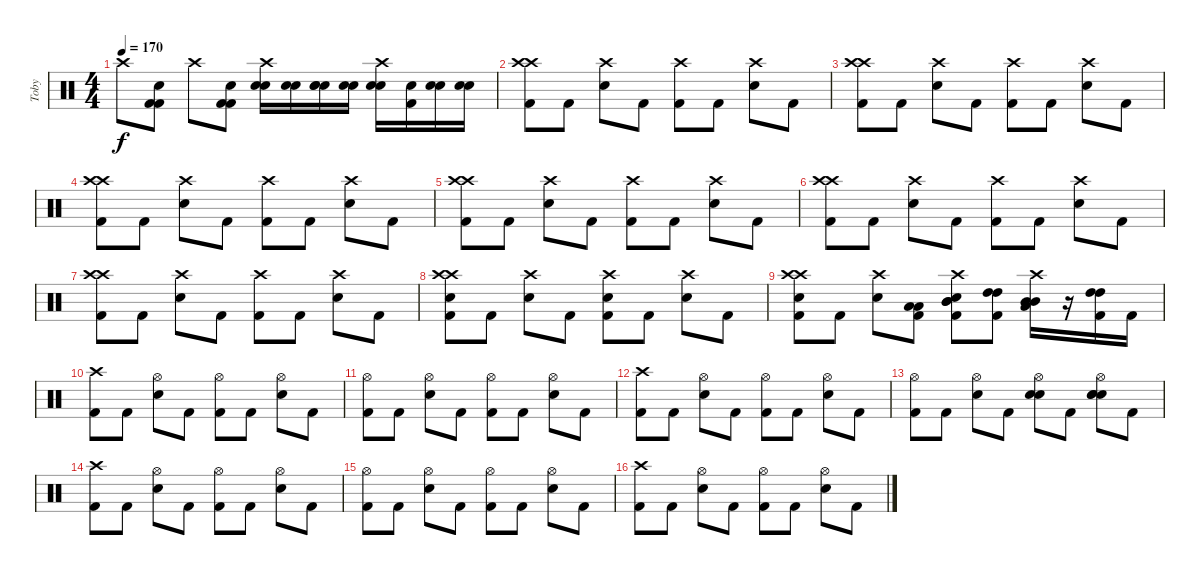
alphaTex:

\track ("Toby" "Toby") {instrument percussion}
\staff {score}
\articulation defaults
\ts (4 4)
\tempo 170
\clef neutral
\ks c "Crash high (hit)".8{dy f}
("Snare (hit)" "Kick (hit) 2" "Kick (hit) 2").8 "Crash high (hit)".8 ("Snare (hit)" "Kick (hit) 2" "Kick (hit) 2").8 ("Crash high (hit)" "Electric Snare (hit)" "Electric Snare (hit)").16 ("Electric Snare (hit)" "Electric Snare (hit)").16 ("Snare (hit)" "Electric Snare (hit)" "Electric Snare (hit)").16 ("Electric Snare (hit)" "Electric Snare (hit)").16 ("Crash high (hit)" "Electric Snare (hit)" "Electric Snare (hit)").16 ("Electric Snare (hit)" "Kick (hit) 2").16 ("Electric Snare (hit)" "Electric Snare (hit)").16 ("Electric Snare (hit)" "Electric Snare (hit)").16 |
("Crash high (hit)" "Crash high (hit)" "Kick (hit) 2").8 "Kick (hit) 2".8 ("Crash high (hit)" "Electric Snare (hit)").8 "Kick (hit) 2".8 ("Crash high (hit)" "Kick (hit) 2").8 "Kick (hit) 2".8 ("Crash high (hit)" "Electric Snare (hit)").8 "Kick (hit) 2".8 |
("Crash high (hit)" "Crash high (hit)" "Kick (hit) 2").8 "Kick (hit) 2".8 ("Crash high (hit)" "Electric Snare (hit)").8 "Kick (hit) 2".8 ("Crash high (hit)" "Kick (hit) 2").8 "Kick (hit) 2".8 ("Crash high (hit)" "Electric Snare (hit)").8 "Kick (hit) 2".8 |
("Crash high (hit)" "Crash high (hit)" "Kick (hit) 2").8 "Kick (hit) 2".8 ("Crash high (hit)" "Electric Snare (hit)").8 "Kick (hit) 2".8 ("Crash high (hit)" "Kick (hit) 2").8 "Kick (hit) 2".8 ("Crash high (hit)" "Electric Snare (hit)").8 "Kick (hit) 2".8 |
("Crash high (hit)" "Crash high (hit)" "Kick (hit) 2").8 "Kick (hit) 2".8 ("Crash high (hit)" "Electric Snare (hit)").8 "Kick (hit) 2".8 ("Crash high (hit)" "Kick (hit) 2").8 "Kick (hit) 2".8 ("Crash high (hit)" "Electric Snare (hit)").8 "Kick (hit) 2".8 |
("Crash high (hit)" "Crash high (hit)" "Kick (hit) 2").8 "Kick (hit) 2".8 ("Crash high (hit)" "Electric Snare (hit)").8 "Kick (hit) 2".8 ("Crash high (hit)" "Kick (hit) 2").8 "Kick (hit) 2".8 ("Crash high (hit)" "Electric Snare (hit)").8 "Kick (hit) 2".8 |
("Crash high (hit)" "Crash high (hit)" "Kick (hit) 2").8 "Kick (hit) 2".8 ("Crash high (hit)" "Electric Snare (hit)").8 "Kick (hit) 2".8 ("Crash high (hit)" "Kick (hit) 2").8 "Kick (hit) 2".8 ("Crash high (hit)" "Electric Snare (hit)").8 "Kick (hit) 2".8 |
("Crash high (hit)" "Crash high (hit)" "Electric Snare (hit)" "Kick (hit) 2").8 "Kick (hit) 2".8 ("Crash high (hit)" "Electric Snare (hit)").8 "Kick (hit) 2".8 ("Crash high (hit)" "Electric Snare (hit)" "Kick (hit) 2").8 "Kick (hit) 2".8 ("Crash high (hit)" "Electric Snare (hit)").8 "Kick (hit) 2".8 |
("Crash high (hit)" "Crash high (hit)" "Electric Snare (hit)" "Kick (hit) 2").8 "Kick (hit) 2".8 ("Crash high (hit)" "Electric Snare (hit)").8 ("Low Tom (hit)" "Low Tom (hit)" "Kick (hit) 2").8 ("Mid Tom (hit)" "Crash high (hit)" "Mid Tom (hit)" "Electric Snare (hit)" "Kick (hit) 2").8 ("High Tom (hit)" "High Tom (hit)" "Kick (hit) 2").8 ("Mid Tom (hit)" "Crash high (hit)" "Mid Tom (hit)" "Low Tom (hit)").16 r.16 ("High Tom (hit)" "High Tom (hit)" "Kick (hit) 2").16 "Kick (hit) 2".16 |
("Crash high (hit)" "Kick (hit) 2").8 "Kick (hit) 2".8 ("Hi-Hat (open)" "Electric Snare (hit)").8 "Kick (hit) 2".8 ("Hi-Hat (open)" "Kick (hit) 2").8 "Kick (hit) 2".8 ("Hi-Hat (open)" "Electric Snare (hit)").8 "Kick (hit) 2".8 |
("Hi-Hat (open)" "Kick (hit) 2").8 "Kick (hit) 2".8 ("Hi-Hat (open)" "Electric Snare (hit)").8 "Kick (hit) 2".8 ("Hi-Hat (open)" "Kick (hit) 2").8 "Kick (hit) 2".8 ("Hi-Hat (open)" "Electric Snare (hit)").8 "Kick (hit) 2".8 |
("Crash high (hit)" "Kick (hit) 2").8 "Kick (hit) 2".8 ("Hi-Hat (open)" "Electric Snare (hit)").8 "Kick (hit) 2".8 ("Hi-Hat (open)" "Kick (hit) 2").8 "Kick (hit) 2".8 ("Hi-Hat (open)" "Electric Snare (hit)").8 "Kick (hit) 2".8 |
("Hi-Hat (open)" "Kick (hit) 2").8 "Kick (hit) 2".8 ("Hi-Hat (open)" "Electric Snare (hit)").8 "Kick (hit) 2".8 ("Hi-Hat (open)" "Electric Snare (hit)" "Electric Snare (hit)").8 "Kick (hit) 2".8 ("Hi-Hat (open)" "Electric Snare (hit)" "Electric Snare (hit)" "Electric Snare (hit)").8 "Kick (hit) 2".8 |
("Crash high (hit)" "Kick (hit) 2").8 "Kick (hit) 2".8 ("Hi-Hat (open)" "Electric Snare (hit)").8 "Kick (hit) 2".8 ("Hi-Hat (open)" "Kick (hit) 2").8 "Kick (hit) 2".8 ("Hi-Hat (open)" "Electric Snare (hit)").8 "Kick (hit) 2".8 |
("Hi-Hat (open)" "Kick (hit) 2").8 "Kick (hit) 2".8 ("Hi-Hat (open)" "Electric Snare (hit)").8 "Kick (hit) 2".8 ("Hi-Hat (open)" "Kick (hit) 2").8 "Kick (hit) 2".8 ("Hi-Hat (open)" "Electric Snare (hit)").8 "Kick (hit) 2".8 |
("Crash high (hit)" "Kick (hit) 2").8 "Kick (hit) 2".8 ("Hi-Hat (open)" "Electric Snare (hit)").8 "Kick (hit) 2".8 ("Hi-Hat (open)" "Kick (hit) 2").8 "Kick (hit) 2".8 ("Hi-Hat (open)" "Electric Snare (hit)").8 "Kick (hit) 2".8
